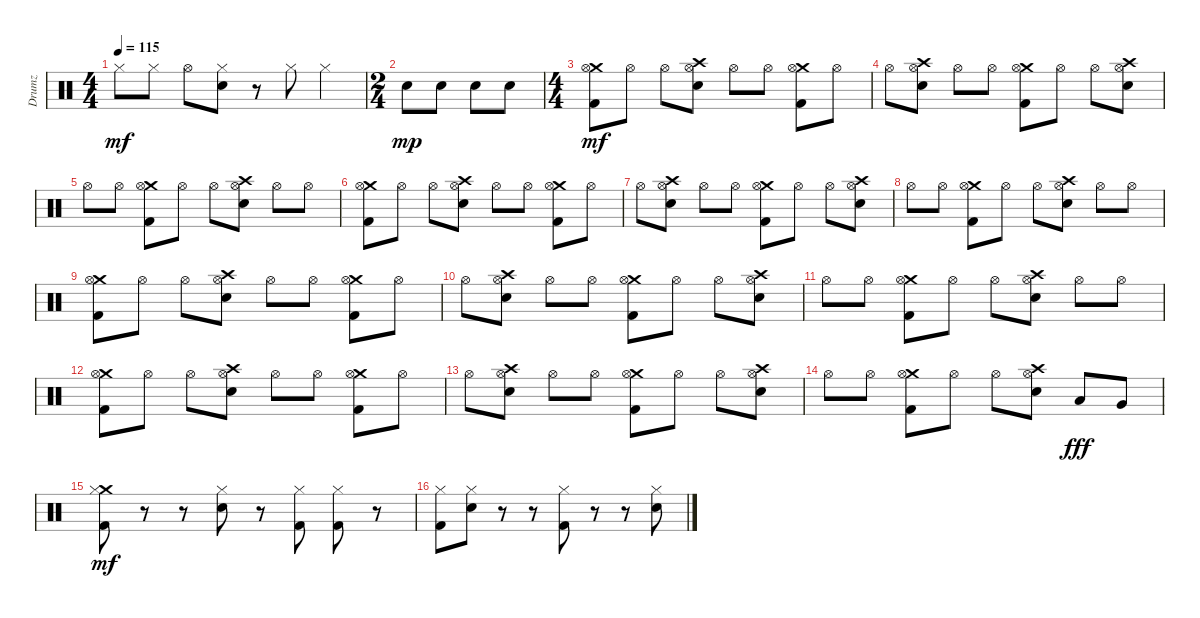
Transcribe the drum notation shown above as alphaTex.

\track ("Drumz" "Drumz") {instrument percussion}
\staff
\articulation defaults
\ts (4 4)
\tempo 115
\clef neutral
\ks c "Hi-Hat (closed)".8{dy mf} "Hi-Hat (closed)".8 "Hi-Hat (open)".8
("Hi-Hat (closed)" "Snare (hit) 2").8 r.8 "Hi-Hat (closed)".8 "Hi-Hat (closed)".4 |
\ts (2 4)
"Snare (hit) 2".8{dy mp} "Snare (hit) 2".8 "Snare (hit) 2".8 "Snare (hit) 2".8 |
\ts (4 4)
("Crash medium (hit)" "Hi-Hat (open)" "Kick (hit) 2").8{dy mf} "Hi-Hat (open)".8 "Hi-Hat (open)".8 ("Crash high (hit)" "Hi-Hat (open)" "Snare (hit) 2").8 "Hi-Hat (open)".8 "Hi-Hat (open)".8 ("Crash medium (hit)" "Hi-Hat (open)" "Kick (hit) 2").8 "Hi-Hat (open)".8 |
"Hi-Hat (open)".8 ("Crash high (hit)" "Hi-Hat (open)" "Snare (hit) 2").8 "Hi-Hat (open)".8 "Hi-Hat (open)".8 ("Crash medium (hit)" "Hi-Hat (open)" "Kick (hit) 2").8 "Hi-Hat (open)".8 "Hi-Hat (open)".8 ("Crash high (hit)" "Hi-Hat (open)" "Snare (hit) 2").8 |
"Hi-Hat (open)".8 "Hi-Hat (open)".8 ("Crash medium (hit)" "Hi-Hat (open)" "Kick (hit) 2").8 "Hi-Hat (open)".8 "Hi-Hat (open)".8 ("Crash high (hit)" "Hi-Hat (open)" "Snare (hit) 2").8 "Hi-Hat (open)".8 "Hi-Hat (open)".8 |
("Crash medium (hit)" "Hi-Hat (open)" "Kick (hit) 2").8 "Hi-Hat (open)".8 "Hi-Hat (open)".8 ("Crash high (hit)" "Hi-Hat (open)" "Snare (hit) 2").8 "Hi-Hat (open)".8 "Hi-Hat (open)".8 ("Crash medium (hit)" "Hi-Hat (open)" "Kick (hit) 2").8 "Hi-Hat (open)".8 |
"Hi-Hat (open)".8 ("Crash high (hit)" "Hi-Hat (open)" "Snare (hit) 2").8 "Hi-Hat (open)".8 "Hi-Hat (open)".8 ("Crash medium (hit)" "Hi-Hat (open)" "Kick (hit) 2").8 "Hi-Hat (open)".8 "Hi-Hat (open)".8 ("Crash high (hit)" "Hi-Hat (open)" "Snare (hit) 2").8 |
"Hi-Hat (open)".8 "Hi-Hat (open)".8 ("Crash medium (hit)" "Hi-Hat (open)" "Kick (hit) 2").8 "Hi-Hat (open)".8 "Hi-Hat (open)".8 ("Crash high (hit)" "Hi-Hat (open)" "Snare (hit) 2").8 "Hi-Hat (open)".8 "Hi-Hat (open)".8 |
("Crash medium (hit)" "Hi-Hat (open)" "Kick (hit) 2").8 "Hi-Hat (open)".8 "Hi-Hat (open)".8 ("Crash high (hit)" "Hi-Hat (open)" "Snare (hit) 2").8 "Hi-Hat (open)".8 "Hi-Hat (open)".8 ("Crash medium (hit)" "Hi-Hat (open)" "Kick (hit) 2").8 "Hi-Hat (open)".8 |
"Hi-Hat (open)".8 ("Crash high (hit)" "Hi-Hat (open)" "Snare (hit) 2").8 "Hi-Hat (open)".8 "Hi-Hat (open)".8 ("Crash medium (hit)" "Hi-Hat (open)" "Kick (hit) 2").8 "Hi-Hat (open)".8 "Hi-Hat (open)".8 ("Crash high (hit)" "Hi-Hat (open)" "Snare (hit) 2").8 |
"Hi-Hat (open)".8 "Hi-Hat (open)".8 ("Crash medium (hit)" "Hi-Hat (open)" "Kick (hit) 2").8 "Hi-Hat (open)".8 "Hi-Hat (open)".8 ("Crash high (hit)" "Hi-Hat (open)" "Snare (hit) 2").8 "Hi-Hat (open)".8 "Hi-Hat (open)".8 |
("Crash medium (hit)" "Hi-Hat (open)" "Kick (hit) 2").8 "Hi-Hat (open)".8 "Hi-Hat (open)".8 ("Crash high (hit)" "Hi-Hat (open)" "Snare (hit) 2").8 "Hi-Hat (open)".8 "Hi-Hat (open)".8 ("Crash medium (hit)" "Hi-Hat (open)" "Kick (hit) 2").8 "Hi-Hat (open)".8 |
"Hi-Hat (open)".8 ("Crash high (hit)" "Hi-Hat (open)" "Snare (hit) 2").8 "Hi-Hat (open)".8 "Hi-Hat (open)".8 ("Crash medium (hit)" "Hi-Hat (open)" "Kick (hit) 2").8 "Hi-Hat (open)".8 "Hi-Hat (open)".8 ("Crash high (hit)" "Hi-Hat (open)" "Snare (hit) 2").8 |
"Hi-Hat (open)".8 "Hi-Hat (open)".8 ("Crash medium (hit)" "Hi-Hat (open)" "Kick (hit) 2").8 "Hi-Hat (open)".8 "Hi-Hat (open)".8 ("Crash high (hit)" "Hi-Hat (open)" "Snare (hit) 2").8 "Low Floor Tom (hit)".8{dy fff} "Very Low Tom (hit)".8 |
("Crash medium (hit)" "Hi-Hat (closed)" "Kick (hit) 2").8{dy mf} r.8 r.8 ("Hi-Hat (closed)" "Snare (hit) 2").8 r.8 ("Hi-Hat (closed)" "Kick (hit) 2").8 ("Hi-Hat (closed)" "Kick (hit) 2").8 r.8 |
("Hi-Hat (closed)" "Kick (hit) 2").8 ("Hi-Hat (closed)" "Snare (hit) 2").8 r.8 r.8 ("Hi-Hat (closed)" "Kick (hit) 2").8 r.8 r.8 ("Hi-Hat (closed)" "Snare (hit) 2").8
